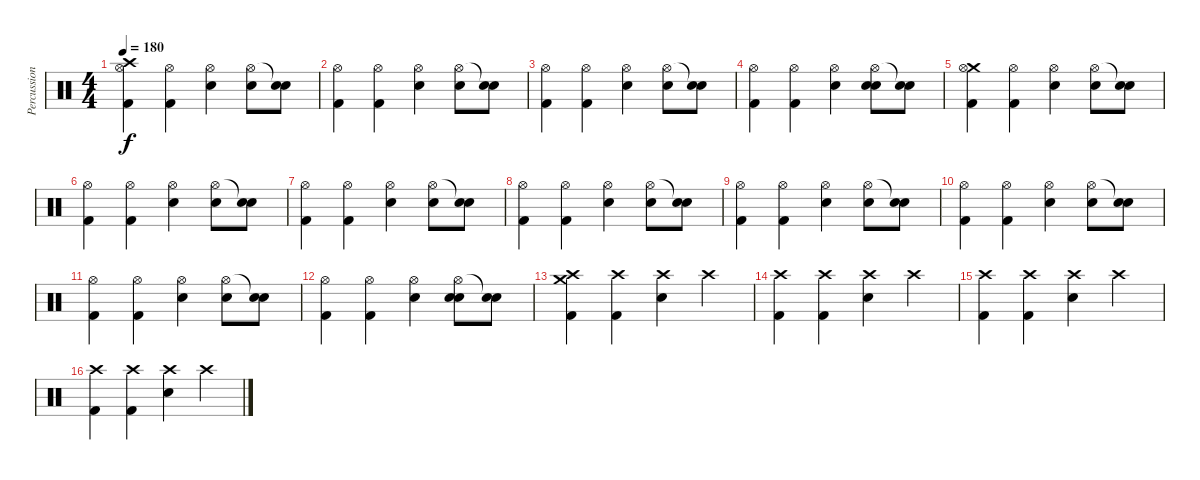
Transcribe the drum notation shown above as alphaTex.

\track ("Percussion" "Percussion") {instrument percussion}
\staff {score}
\articulation defaults
\ts (4 4)
\tempo 180
\clef neutral
\ks c
("Crash high (hit)" "Hi-Hat (open)" "Kick (hit) 2").4{dy f} ("Hi-Hat (open)" "Kick (hit) 2").4 ("Hi-Hat (open)" "Electric Snare (hit)").4 ("Hi-Hat (open)" "Snare (hit)").8 ("Snare (hit)"{t} "Electric Snare (hit)").8 |
("Hi-Hat (open)" "Kick (hit) 2").4 ("Hi-Hat (open)" "Kick (hit) 2").4 ("Hi-Hat (open)" "Electric Snare (hit)").4 ("Hi-Hat (open)" "Snare (hit)").8 ("Snare (hit)"{t} "Electric Snare (hit)").8 |
("Hi-Hat (open)" "Kick (hit) 2").4 ("Hi-Hat (open)" "Kick (hit) 2").4 ("Hi-Hat (open)" "Electric Snare (hit)").4 ("Hi-Hat (open)" "Snare (hit)").8 ("Snare (hit)"{t} "Electric Snare (hit)").8 |
("Hi-Hat (open)" "Kick (hit) 2").4 ("Hi-Hat (open)" "Kick (hit) 2").4 ("Hi-Hat (open)" "Electric Snare (hit)").4 ("Hi-Hat (open)" "Electric Snare (hit)" "Snare (hit)").8 ("Snare (hit)"{t} "Electric Snare (hit)").8 |
("Crash medium (hit)" "Hi-Hat (open)" "Kick (hit) 2").4 ("Hi-Hat (open)" "Kick (hit) 2").4 ("Hi-Hat (open)" "Electric Snare (hit)").4 ("Hi-Hat (open)" "Snare (hit)").8 ("Snare (hit)"{t} "Electric Snare (hit)").8 |
("Hi-Hat (open)" "Kick (hit) 2").4 ("Hi-Hat (open)" "Kick (hit) 2").4 ("Hi-Hat (open)" "Electric Snare (hit)").4 ("Hi-Hat (open)" "Snare (hit)").8 ("Snare (hit)"{t} "Electric Snare (hit)").8 |
("Hi-Hat (open)" "Kick (hit) 2").4 ("Hi-Hat (open)" "Kick (hit) 2").4 ("Hi-Hat (open)" "Electric Snare (hit)").4 ("Hi-Hat (open)" "Snare (hit)").8 ("Snare (hit)"{t} "Electric Snare (hit)").8 |
("Hi-Hat (open)" "Kick (hit) 2").4 ("Hi-Hat (open)" "Kick (hit) 2").4 ("Hi-Hat (open)" "Electric Snare (hit)").4 ("Hi-Hat (open)" "Snare (hit)").8 ("Snare (hit)"{t} "Electric Snare (hit)").8 |
("Hi-Hat (open)" "Kick (hit) 2").4 ("Hi-Hat (open)" "Kick (hit) 2").4 ("Hi-Hat (open)" "Electric Snare (hit)").4 ("Hi-Hat (open)" "Snare (hit)").8 ("Snare (hit)"{t} "Electric Snare (hit)").8 |
("Hi-Hat (open)" "Kick (hit) 2").4 ("Hi-Hat (open)" "Kick (hit) 2").4 ("Hi-Hat (open)" "Electric Snare (hit)").4 ("Hi-Hat (open)" "Snare (hit)").8 ("Snare (hit)"{t} "Electric Snare (hit)").8 |
("Hi-Hat (open)" "Kick (hit) 2").4 ("Hi-Hat (open)" "Kick (hit) 2").4 ("Hi-Hat (open)" "Electric Snare (hit)").4 ("Hi-Hat (open)" "Snare (hit)").8 ("Snare (hit)"{t} "Electric Snare (hit)").8 |
("Hi-Hat (open)" "Kick (hit) 2").4 ("Hi-Hat (open)" "Kick (hit) 2").4 ("Hi-Hat (open)" "Electric Snare (hit)").4 ("Hi-Hat (open)" "Electric Snare (hit)" "Snare (hit)").8 ("Snare (hit)"{t} "Electric Snare (hit)").8 |
("Crash medium (hit)" "Crash high (hit)" "Kick (hit) 2").4 ("Crash high (hit)" "Kick (hit) 2").4 ("Crash high (hit)" "Electric Snare (hit)").4 "Crash high (hit)".4 |
("Crash high (hit)" "Kick (hit) 2").4 ("Crash high (hit)" "Kick (hit) 2").4 ("Crash high (hit)" "Electric Snare (hit)").4 "Crash high (hit)".4 |
("Crash high (hit)" "Kick (hit) 2").4 ("Crash high (hit)" "Kick (hit) 2").4 ("Crash high (hit)" "Electric Snare (hit)").4 "Crash high (hit)".4 |
("Crash high (hit)" "Kick (hit) 2").4 ("Crash high (hit)" "Kick (hit) 2").4 ("Crash high (hit)" "Electric Snare (hit)").4 "Crash high (hit)".4
